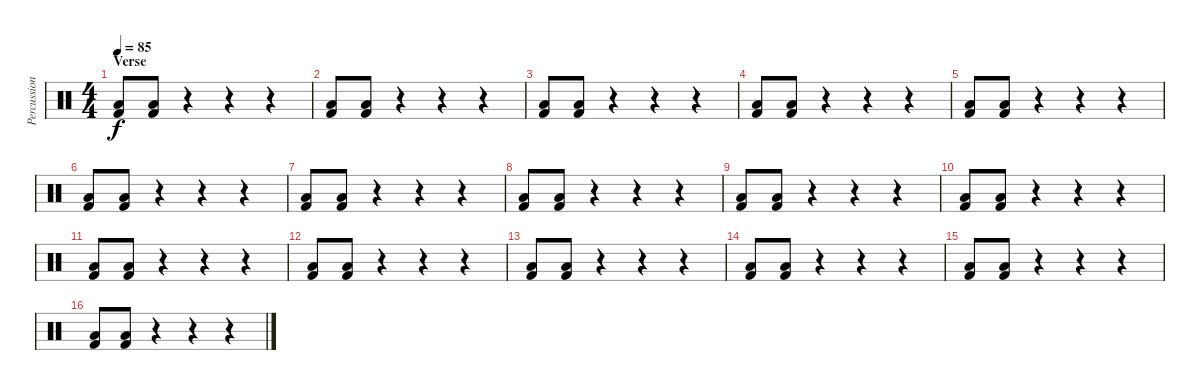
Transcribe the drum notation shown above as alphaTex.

\track ("Percussion II . Jeremiah Green" "Percussion") {instrument percussion}
\staff {score}
\articulation defaults
\ts (4 4)
\section ("" "Verse")
\tempo 85
\clef neutral
\ks c
("Low Floor Tom (hit)" "Kick (hit) 2").8{dy f} ("Low Floor Tom (hit)" "Kick (hit) 2").8 r.4 r.4 r.4 |
("Low Floor Tom (hit)" "Kick (hit) 2").8 ("Low Floor Tom (hit)" "Kick (hit) 2").8 r.4 r.4 r.4 |
("Low Floor Tom (hit)" "Kick (hit) 2").8 ("Low Floor Tom (hit)" "Kick (hit) 2").8 r.4 r.4 r.4 |
("Low Floor Tom (hit)" "Kick (hit) 2").8 ("Low Floor Tom (hit)" "Kick (hit) 2").8 r.4 r.4 r.4 |
("Low Floor Tom (hit)" "Kick (hit) 2").8 ("Low Floor Tom (hit)" "Kick (hit) 2").8 r.4 r.4 r.4 |
("Low Floor Tom (hit)" "Kick (hit) 2").8 ("Low Floor Tom (hit)" "Kick (hit) 2").8 r.4 r.4 r.4 |
("Low Floor Tom (hit)" "Kick (hit) 2").8 ("Low Floor Tom (hit)" "Kick (hit) 2").8 r.4 r.4 r.4 |
("Low Floor Tom (hit)" "Kick (hit) 2").8 ("Low Floor Tom (hit)" "Kick (hit) 2").8 r.4 r.4 r.4 |
("Low Floor Tom (hit)" "Kick (hit) 2").8 ("Low Floor Tom (hit)" "Kick (hit) 2").8 r.4 r.4 r.4 |
("Low Floor Tom (hit)" "Kick (hit) 2").8 ("Low Floor Tom (hit)" "Kick (hit) 2").8 r.4 r.4 r.4 |
("Low Floor Tom (hit)" "Kick (hit) 2").8 ("Low Floor Tom (hit)" "Kick (hit) 2").8 r.4 r.4 r.4 |
("Low Floor Tom (hit)" "Kick (hit) 2").8 ("Low Floor Tom (hit)" "Kick (hit) 2").8 r.4 r.4 r.4 |
("Low Floor Tom (hit)" "Kick (hit) 2").8 ("Low Floor Tom (hit)" "Kick (hit) 2").8 r.4 r.4 r.4 |
("Low Floor Tom (hit)" "Kick (hit) 2").8 ("Low Floor Tom (hit)" "Kick (hit) 2").8 r.4 r.4 r.4 |
("Low Floor Tom (hit)" "Kick (hit) 2").8 ("Low Floor Tom (hit)" "Kick (hit) 2").8 r.4 r.4 r.4 |
("Low Floor Tom (hit)" "Kick (hit) 2").8 ("Low Floor Tom (hit)" "Kick (hit) 2").8 r.4 r.4 r.4
